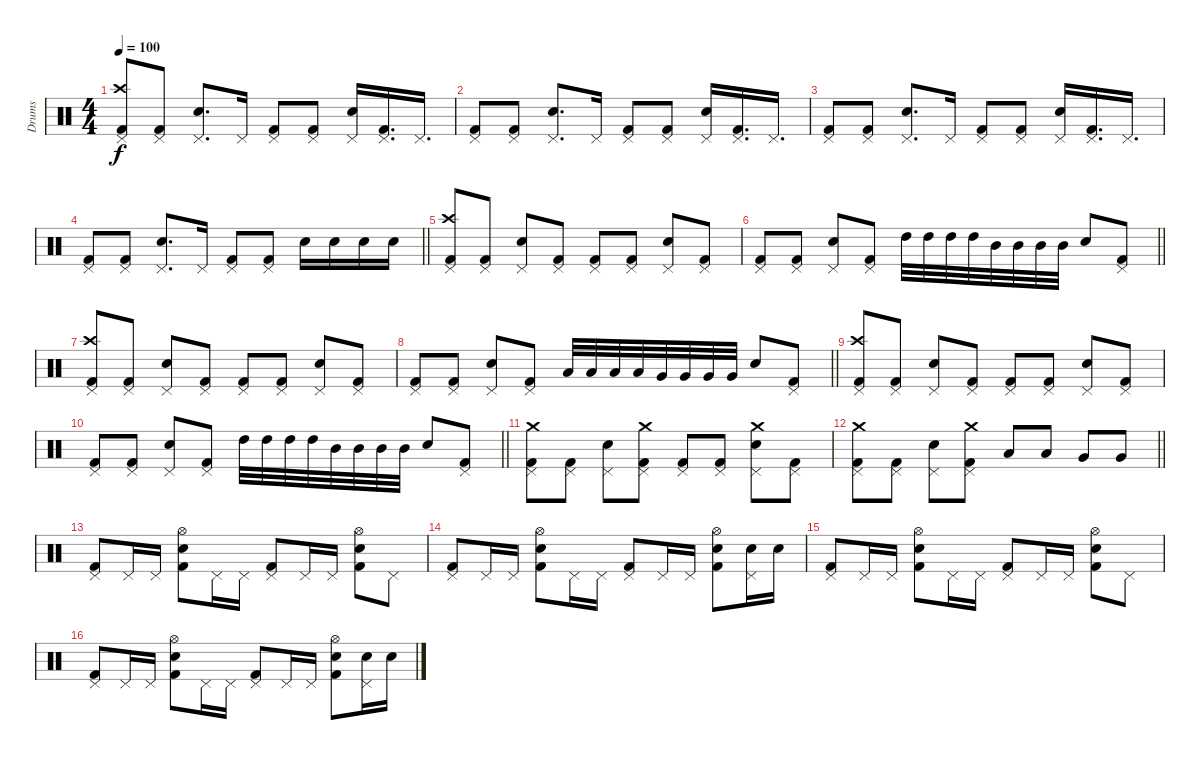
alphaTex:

\track ("Drums" "Drums") {instrument percussion}
\staff
\articulation defaults
\ts (4 4)
\tempo 100
\clef neutral
\ks c
("Pedal Hi-Hat (hit)" "Crash high (hit)" "Kick (hit) 2").8{dy f} ("Pedal Hi-Hat (hit)" "Kick (hit) 2").8 ("Electric Snare (hit)" "Pedal Hi-Hat (hit)").8{d} "Pedal Hi-Hat (hit)".16 ("Pedal Hi-Hat (hit)" "Kick (hit) 2").8 ("Pedal Hi-Hat (hit)" "Kick (hit) 2").8 ("Electric Snare (hit)" "Pedal Hi-Hat (hit)").16 ("Pedal Hi-Hat (hit)" "Kick (hit) 2").16{d} "Pedal Hi-Hat (hit)".16{d} |
("Pedal Hi-Hat (hit)" "Kick (hit) 2").8 ("Pedal Hi-Hat (hit)" "Kick (hit) 2").8 ("Electric Snare (hit)" "Pedal Hi-Hat (hit)").8{d} "Pedal Hi-Hat (hit)".16 ("Pedal Hi-Hat (hit)" "Kick (hit) 2").8 ("Pedal Hi-Hat (hit)" "Kick (hit) 2").8 ("Electric Snare (hit)" "Pedal Hi-Hat (hit)").16 ("Pedal Hi-Hat (hit)" "Kick (hit) 2").16{d} "Pedal Hi-Hat (hit)".16{d} |
("Pedal Hi-Hat (hit)" "Kick (hit) 2").8 ("Pedal Hi-Hat (hit)" "Kick (hit) 2").8 ("Electric Snare (hit)" "Pedal Hi-Hat (hit)").8{d} "Pedal Hi-Hat (hit)".16 ("Pedal Hi-Hat (hit)" "Kick (hit) 2").8 ("Pedal Hi-Hat (hit)" "Kick (hit) 2").8 ("Electric Snare (hit)" "Pedal Hi-Hat (hit)").16 ("Pedal Hi-Hat (hit)" "Kick (hit) 2").16{d} "Pedal Hi-Hat (hit)".16{d} |
\barLineRight lightlight
("Pedal Hi-Hat (hit)" "Kick (hit) 2").8 ("Pedal Hi-Hat (hit)" "Kick (hit) 2").8 ("Electric Snare (hit)" "Pedal Hi-Hat (hit)").8{d} "Pedal Hi-Hat (hit)".16 ("Pedal Hi-Hat (hit)" "Kick (hit) 2").8 ("Pedal Hi-Hat (hit)" "Kick (hit) 2").8 "Electric Snare (hit)".16 "Electric Snare (hit)".16 "Electric Snare (hit)".16 "Electric Snare (hit)".16 |
("Pedal Hi-Hat (hit)" "Crash high (hit)" "Kick (hit) 2").8 ("Pedal Hi-Hat (hit)" "Kick (hit) 2").8 ("Electric Snare (hit)" "Pedal Hi-Hat (hit)").8 ("Pedal Hi-Hat (hit)" "Kick (hit) 2").8 ("Pedal Hi-Hat (hit)" "Kick (hit) 2").8 ("Pedal Hi-Hat (hit)" "Kick (hit) 2").8 ("Electric Snare (hit)" "Pedal Hi-Hat (hit)").8 ("Pedal Hi-Hat (hit)" "Kick (hit) 2").8 |
\barLineRight lightlight
("Pedal Hi-Hat (hit)" "Kick (hit) 2").8 ("Pedal Hi-Hat (hit)" "Kick (hit) 2").8 ("Electric Snare (hit)" "Pedal Hi-Hat (hit)").8 ("Pedal Hi-Hat (hit)" "Kick (hit) 2").8 "High Tom (hit)".32 "High Tom (hit)".32 "High Tom (hit)".32 "High Tom (hit)".32 "Mid Tom (hit)".32 "Mid Tom (hit)".32 "Mid Tom (hit)".32 "Mid Tom (hit)".32 "Electric Snare (hit)".8 ("Pedal Hi-Hat (hit)" "Kick (hit) 2").8 |
("Pedal Hi-Hat (hit)" "Crash high (hit)" "Kick (hit) 2").8 ("Pedal Hi-Hat (hit)" "Kick (hit) 2").8 ("Electric Snare (hit)" "Pedal Hi-Hat (hit)").8 ("Pedal Hi-Hat (hit)" "Kick (hit) 2").8 ("Pedal Hi-Hat (hit)" "Kick (hit) 2").8 ("Pedal Hi-Hat (hit)" "Kick (hit) 2").8 ("Electric Snare (hit)" "Pedal Hi-Hat (hit)").8 ("Pedal Hi-Hat (hit)" "Kick (hit) 2").8 |
\barLineRight lightlight
("Pedal Hi-Hat (hit)" "Kick (hit) 2").8 ("Pedal Hi-Hat (hit)" "Kick (hit) 2").8 ("Electric Snare (hit)" "Pedal Hi-Hat (hit)").8 ("Pedal Hi-Hat (hit)" "Kick (hit) 2").8 "Low Tom (hit)".32 "Low Tom (hit)".32 "Low Tom (hit)".32 "Low Tom (hit)".32 "Very Low Tom (hit)".32 "Very Low Tom (hit)".32 "Very Low Tom (hit)".32 "Very Low Tom (hit)".32 "Electric Snare (hit)".8 ("Pedal Hi-Hat (hit)" "Kick (hit) 2").8 |
("Pedal Hi-Hat (hit)" "Crash high (hit)" "Kick (hit) 2").8 ("Pedal Hi-Hat (hit)" "Kick (hit) 2").8 ("Electric Snare (hit)" "Pedal Hi-Hat (hit)").8 ("Pedal Hi-Hat (hit)" "Kick (hit) 2").8 ("Pedal Hi-Hat (hit)" "Kick (hit) 2").8 ("Pedal Hi-Hat (hit)" "Kick (hit) 2").8 ("Electric Snare (hit)" "Pedal Hi-Hat (hit)").8 ("Pedal Hi-Hat (hit)" "Kick (hit) 2").8 |
\barLineRight lightlight
("Pedal Hi-Hat (hit)" "Kick (hit) 2").8 ("Pedal Hi-Hat (hit)" "Kick (hit) 2").8 ("Electric Snare (hit)" "Pedal Hi-Hat (hit)").8 ("Pedal Hi-Hat (hit)" "Kick (hit) 2").8 "High Tom (hit)".32 "High Tom (hit)".32 "High Tom (hit)".32 "High Tom (hit)".32 "Mid Tom (hit)".32 "Mid Tom (hit)".32 "Mid Tom (hit)".32 "Mid Tom (hit)".32 "Electric Snare (hit)".8 ("Pedal Hi-Hat (hit)" "Kick (hit) 2").8 |
("Pedal Hi-Hat (hit)" "Crash medium (hit)" "Kick (hit) 2").8 ("Pedal Hi-Hat (hit)" "Kick (hit) 2").8 ("Electric Snare (hit)" "Pedal Hi-Hat (hit)").8 ("Pedal Hi-Hat (hit)" "Crash medium (hit)" "Kick (hit) 2").8 ("Pedal Hi-Hat (hit)" "Kick (hit) 2").8 ("Pedal Hi-Hat (hit)" "Kick (hit) 2").8 ("Electric Snare (hit)" "Pedal Hi-Hat (hit)" "Crash medium (hit)").8 ("Pedal Hi-Hat (hit)" "Kick (hit) 2").8 |
\barLineRight lightlight
("Pedal Hi-Hat (hit)" "Crash medium (hit)" "Kick (hit) 2").8 ("Pedal Hi-Hat (hit)" "Kick (hit) 2").8 ("Electric Snare (hit)" "Pedal Hi-Hat (hit)").8 ("Pedal Hi-Hat (hit)" "Crash medium (hit)" "Kick (hit) 2").8 "Low Tom (hit)".8 "Low Tom (hit)".8 "Very Low Tom (hit)".8 "Very Low Tom (hit)".8 |
("Pedal Hi-Hat (hit)" "Kick (hit) 2").8 "Pedal Hi-Hat (hit)".16 "Pedal Hi-Hat (hit)".16 ("Electric Snare (hit)" "Hi-Hat (open)" "Kick (hit) 2").8 "Pedal Hi-Hat (hit)".16 "Pedal Hi-Hat (hit)".16 ("Pedal Hi-Hat (hit)" "Kick (hit) 2").8 "Pedal Hi-Hat (hit)".16 "Pedal Hi-Hat (hit)".16 ("Electric Snare (hit)" "Hi-Hat (open)" "Kick (hit) 2").8 "Pedal Hi-Hat (hit)".8 |
("Pedal Hi-Hat (hit)" "Kick (hit) 2").8 "Pedal Hi-Hat (hit)".16 "Pedal Hi-Hat (hit)".16 ("Electric Snare (hit)" "Hi-Hat (open)" "Kick (hit) 2").8 "Pedal Hi-Hat (hit)".16 "Pedal Hi-Hat (hit)".16 ("Pedal Hi-Hat (hit)" "Kick (hit) 2").8 "Pedal Hi-Hat (hit)".16 "Pedal Hi-Hat (hit)".16 ("Electric Snare (hit)" "Hi-Hat (open)" "Kick (hit) 2").8 ("Pedal Hi-Hat (hit)" "Electric Snare (hit)").16 "Electric Snare (hit)".16 |
("Pedal Hi-Hat (hit)" "Kick (hit) 2").8 "Pedal Hi-Hat (hit)".16 "Pedal Hi-Hat (hit)".16 ("Electric Snare (hit)" "Hi-Hat (open)" "Kick (hit) 2").8 "Pedal Hi-Hat (hit)".16 "Pedal Hi-Hat (hit)".16 ("Pedal Hi-Hat (hit)" "Kick (hit) 2").8 "Pedal Hi-Hat (hit)".16 "Pedal Hi-Hat (hit)".16 ("Electric Snare (hit)" "Hi-Hat (open)" "Kick (hit) 2").8 "Pedal Hi-Hat (hit)".8 |
("Pedal Hi-Hat (hit)" "Kick (hit) 2").8 "Pedal Hi-Hat (hit)".16 "Pedal Hi-Hat (hit)".16 ("Electric Snare (hit)" "Hi-Hat (open)" "Kick (hit) 2").8 "Pedal Hi-Hat (hit)".16 "Pedal Hi-Hat (hit)".16 ("Pedal Hi-Hat (hit)" "Kick (hit) 2").8 "Pedal Hi-Hat (hit)".16 "Pedal Hi-Hat (hit)".16 ("Electric Snare (hit)" "Hi-Hat (open)" "Kick (hit) 2").8 ("Pedal Hi-Hat (hit)" "Electric Snare (hit)").16 "Electric Snare (hit)".16
